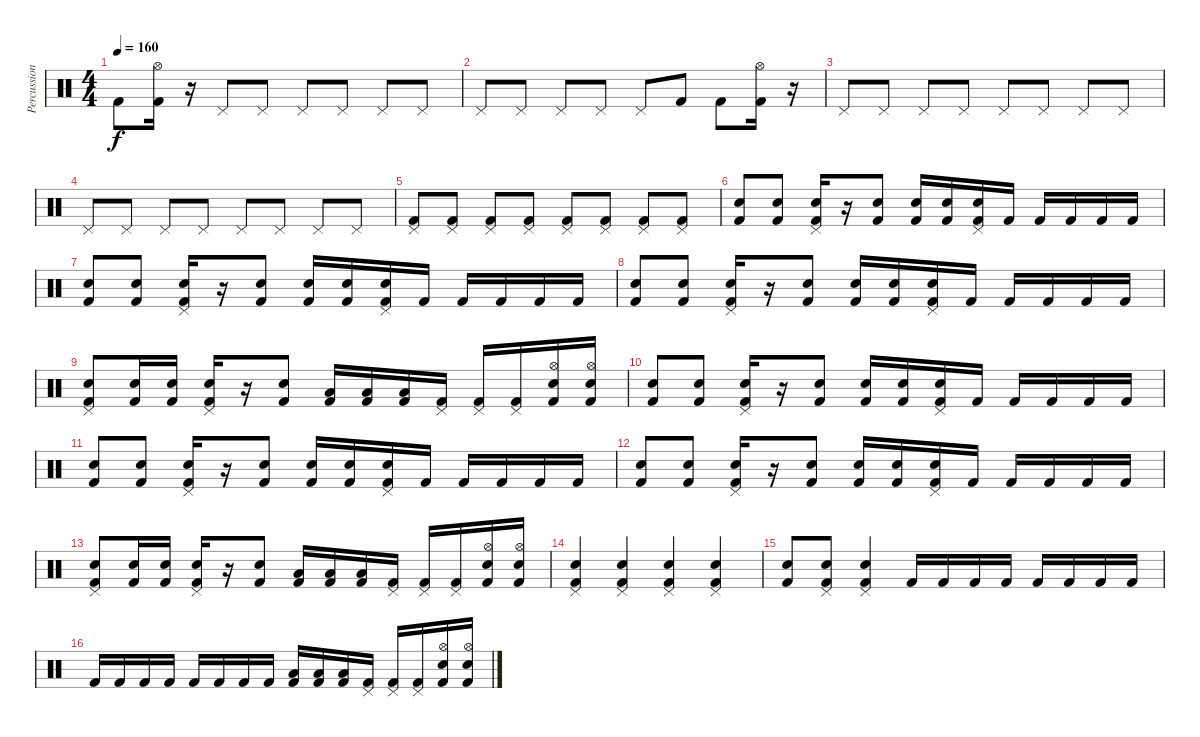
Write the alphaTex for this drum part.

\track ("Percussions" "Percussion") {instrument percussion}
\staff {score}
\articulation defaults
\ts (4 4)
\tempo 160
\clef neutral
\ks c "Kick (hit) 2".8{dy f}
("Hi-Hat (open)" "Kick (hit) 2").16 r.16 "Pedal Hi-Hat (hit)".8 "Pedal Hi-Hat (hit)".8 "Pedal Hi-Hat (hit)".8 "Pedal Hi-Hat (hit)".8 "Pedal Hi-Hat (hit)".8 "Pedal Hi-Hat (hit)".8 |
"Pedal Hi-Hat (hit)".8 "Pedal Hi-Hat (hit)".8 "Pedal Hi-Hat (hit)".8 "Pedal Hi-Hat (hit)".8 "Pedal Hi-Hat (hit)".8 "Kick (hit) 2".8 "Kick (hit) 2".8 ("Hi-Hat (open)" "Kick (hit) 2").16 r.16 |
"Pedal Hi-Hat (hit)".8 "Pedal Hi-Hat (hit)".8 "Pedal Hi-Hat (hit)".8 "Pedal Hi-Hat (hit)".8 "Pedal Hi-Hat (hit)".8 "Pedal Hi-Hat (hit)".8 "Pedal Hi-Hat (hit)".8 "Pedal Hi-Hat (hit)".8 |
"Pedal Hi-Hat (hit)".8 "Pedal Hi-Hat (hit)".8 "Pedal Hi-Hat (hit)".8 "Pedal Hi-Hat (hit)".8 "Pedal Hi-Hat (hit)".8 "Pedal Hi-Hat (hit)".8 "Pedal Hi-Hat (hit)".8 "Pedal Hi-Hat (hit)".8 |
("Pedal Hi-Hat (hit)" "Kick (hit) 2").8 ("Pedal Hi-Hat (hit)" "Kick (hit) 2").8 ("Pedal Hi-Hat (hit)" "Kick (hit) 2").8 ("Pedal Hi-Hat (hit)" "Kick (hit) 2").8 ("Pedal Hi-Hat (hit)" "Kick (hit) 2").8 ("Pedal Hi-Hat (hit)" "Kick (hit) 2").8 ("Pedal Hi-Hat (hit)" "Kick (hit) 2").8 ("Pedal Hi-Hat (hit)" "Kick (hit) 2").8 |
("Kick (hit) 2" "Snare (hit) 2").8 ("Kick (hit) 2" "Snare (hit) 2").8 ("Kick (hit) 2" "Snare (hit) 2" "Pedal Hi-Hat (hit)").16 r.16 ("Kick (hit) 2" "Snare (hit) 2").8 ("Kick (hit) 2" "Snare (hit) 2").16 ("Kick (hit) 2" "Snare (hit) 2").16 ("Kick (hit) 2" "Snare (hit) 2" "Pedal Hi-Hat (hit)").16 "Kick (hit) 2".16 "Kick (hit) 2".16 "Kick (hit) 2".16 "Kick (hit) 2".16 "Kick (hit) 2".16 |
("Kick (hit) 2" "Snare (hit) 2").8 ("Kick (hit) 2" "Snare (hit) 2").8 ("Kick (hit) 2" "Snare (hit) 2" "Pedal Hi-Hat (hit)").16 r.16 ("Kick (hit) 2" "Snare (hit) 2").8 ("Kick (hit) 2" "Snare (hit) 2").16 ("Kick (hit) 2" "Snare (hit) 2").16 ("Kick (hit) 2" "Snare (hit) 2" "Pedal Hi-Hat (hit)").16 "Kick (hit) 2".16 "Kick (hit) 2".16 "Kick (hit) 2".16 "Kick (hit) 2".16 "Kick (hit) 2".16 |
("Kick (hit) 2" "Snare (hit) 2").8 ("Kick (hit) 2" "Snare (hit) 2").8 ("Kick (hit) 2" "Snare (hit) 2" "Pedal Hi-Hat (hit)").16 r.16 ("Kick (hit) 2" "Snare (hit) 2").8 ("Kick (hit) 2" "Snare (hit) 2").16 ("Kick (hit) 2" "Snare (hit) 2").16 ("Kick (hit) 2" "Snare (hit) 2" "Pedal Hi-Hat (hit)").16 "Kick (hit) 2".16 "Kick (hit) 2".16 "Kick (hit) 2".16 "Kick (hit) 2".16 "Kick (hit) 2".16 |
("Kick (hit) 2" "Snare (hit) 2" "Pedal Hi-Hat (hit)").8 ("Kick (hit) 2" "Snare (hit) 2").16 ("Kick (hit) 2" "Snare (hit) 2").16 ("Kick (hit) 2" "Snare (hit) 2" "Pedal Hi-Hat (hit)").16 r.16 ("Kick (hit) 2" "Snare (hit) 2").8 ("Kick (hit) 2" "Low Tom (hit)").16 ("Kick (hit) 2" "Low Tom (hit)").16 ("Kick (hit) 2" "Low Tom (hit)").16 ("Kick (hit) 2" "Pedal Hi-Hat (hit)").16 ("Kick (hit) 2" "Pedal Hi-Hat (hit)").16 ("Kick (hit) 2" "Pedal Hi-Hat (hit)").16 ("Kick (hit) 2" "Snare (hit) 2" "Hi-Hat (open)").16 ("Kick (hit) 2" "Snare (hit) 2" "Hi-Hat (open)").16 |
("Kick (hit) 2" "Snare (hit) 2").8 ("Kick (hit) 2" "Snare (hit) 2").8 ("Kick (hit) 2" "Snare (hit) 2" "Pedal Hi-Hat (hit)").16 r.16 ("Kick (hit) 2" "Snare (hit) 2").8 ("Kick (hit) 2" "Snare (hit) 2").16 ("Kick (hit) 2" "Snare (hit) 2").16 ("Kick (hit) 2" "Snare (hit) 2" "Pedal Hi-Hat (hit)").16 "Kick (hit) 2".16 "Kick (hit) 2".16 "Kick (hit) 2".16 "Kick (hit) 2".16 "Kick (hit) 2".16 |
("Kick (hit) 2" "Snare (hit) 2").8 ("Kick (hit) 2" "Snare (hit) 2").8 ("Kick (hit) 2" "Snare (hit) 2" "Pedal Hi-Hat (hit)").16 r.16 ("Kick (hit) 2" "Snare (hit) 2").8 ("Kick (hit) 2" "Snare (hit) 2").16 ("Kick (hit) 2" "Snare (hit) 2").16 ("Kick (hit) 2" "Snare (hit) 2" "Pedal Hi-Hat (hit)").16 "Kick (hit) 2".16 "Kick (hit) 2".16 "Kick (hit) 2".16 "Kick (hit) 2".16 "Kick (hit) 2".16 |
("Kick (hit) 2" "Snare (hit) 2").8 ("Kick (hit) 2" "Snare (hit) 2").8 ("Kick (hit) 2" "Snare (hit) 2" "Pedal Hi-Hat (hit)").16 r.16 ("Kick (hit) 2" "Snare (hit) 2").8 ("Kick (hit) 2" "Snare (hit) 2").16 ("Kick (hit) 2" "Snare (hit) 2").16 ("Kick (hit) 2" "Snare (hit) 2" "Pedal Hi-Hat (hit)").16 "Kick (hit) 2".16 "Kick (hit) 2".16 "Kick (hit) 2".16 "Kick (hit) 2".16 "Kick (hit) 2".16 |
("Kick (hit) 2" "Snare (hit) 2" "Pedal Hi-Hat (hit)").8 ("Kick (hit) 2" "Snare (hit) 2").16 ("Kick (hit) 2" "Snare (hit) 2").16 ("Kick (hit) 2" "Snare (hit) 2" "Pedal Hi-Hat (hit)").16 r.16 ("Kick (hit) 2" "Snare (hit) 2").8 ("Kick (hit) 2" "Low Tom (hit)").16 ("Kick (hit) 2" "Low Tom (hit)").16 ("Kick (hit) 2" "Low Tom (hit)").16 ("Kick (hit) 2" "Pedal Hi-Hat (hit)").16 ("Kick (hit) 2" "Pedal Hi-Hat (hit)").16 ("Kick (hit) 2" "Pedal Hi-Hat (hit)").16 ("Kick (hit) 2" "Snare (hit) 2" "Hi-Hat (open)").16 ("Kick (hit) 2" "Snare (hit) 2" "Hi-Hat (open)").16 |
("Kick (hit) 2" "Snare (hit) 2" "Pedal Hi-Hat (hit)").4 ("Kick (hit) 2" "Snare (hit) 2" "Pedal Hi-Hat (hit)").4 ("Kick (hit) 2" "Snare (hit) 2" "Pedal Hi-Hat (hit)").4 ("Kick (hit) 2" "Snare (hit) 2" "Pedal Hi-Hat (hit)").4 |
("Kick (hit) 2" "Snare (hit) 2").8 ("Kick (hit) 2" "Snare (hit) 2" "Pedal Hi-Hat (hit)").8 ("Kick (hit) 2" "Snare (hit) 2" "Pedal Hi-Hat (hit)").4 "Kick (hit) 2".16 "Kick (hit) 2".16 "Kick (hit) 2".16 "Kick (hit) 2".16 "Kick (hit) 2".16 "Kick (hit) 2".16 "Kick (hit) 2".16 "Kick (hit) 2".16 |
"Kick (hit) 2".16 "Kick (hit) 2".16 "Kick (hit) 2".16 "Kick (hit) 2".16 "Kick (hit) 2".16 "Kick (hit) 2".16 "Kick (hit) 2".16 "Kick (hit) 2".16 ("Kick (hit) 2" "Low Tom (hit)").16 ("Kick (hit) 2" "Low Tom (hit)").16 ("Kick (hit) 2" "Low Tom (hit)").16 ("Kick (hit) 2" "Pedal Hi-Hat (hit)").16 ("Kick (hit) 2" "Pedal Hi-Hat (hit)").16 ("Kick (hit) 2" "Pedal Hi-Hat (hit)").16 ("Kick (hit) 2" "Snare (hit) 2" "Hi-Hat (open)").16 ("Kick (hit) 2" "Snare (hit) 2" "Hi-Hat (open)").16
